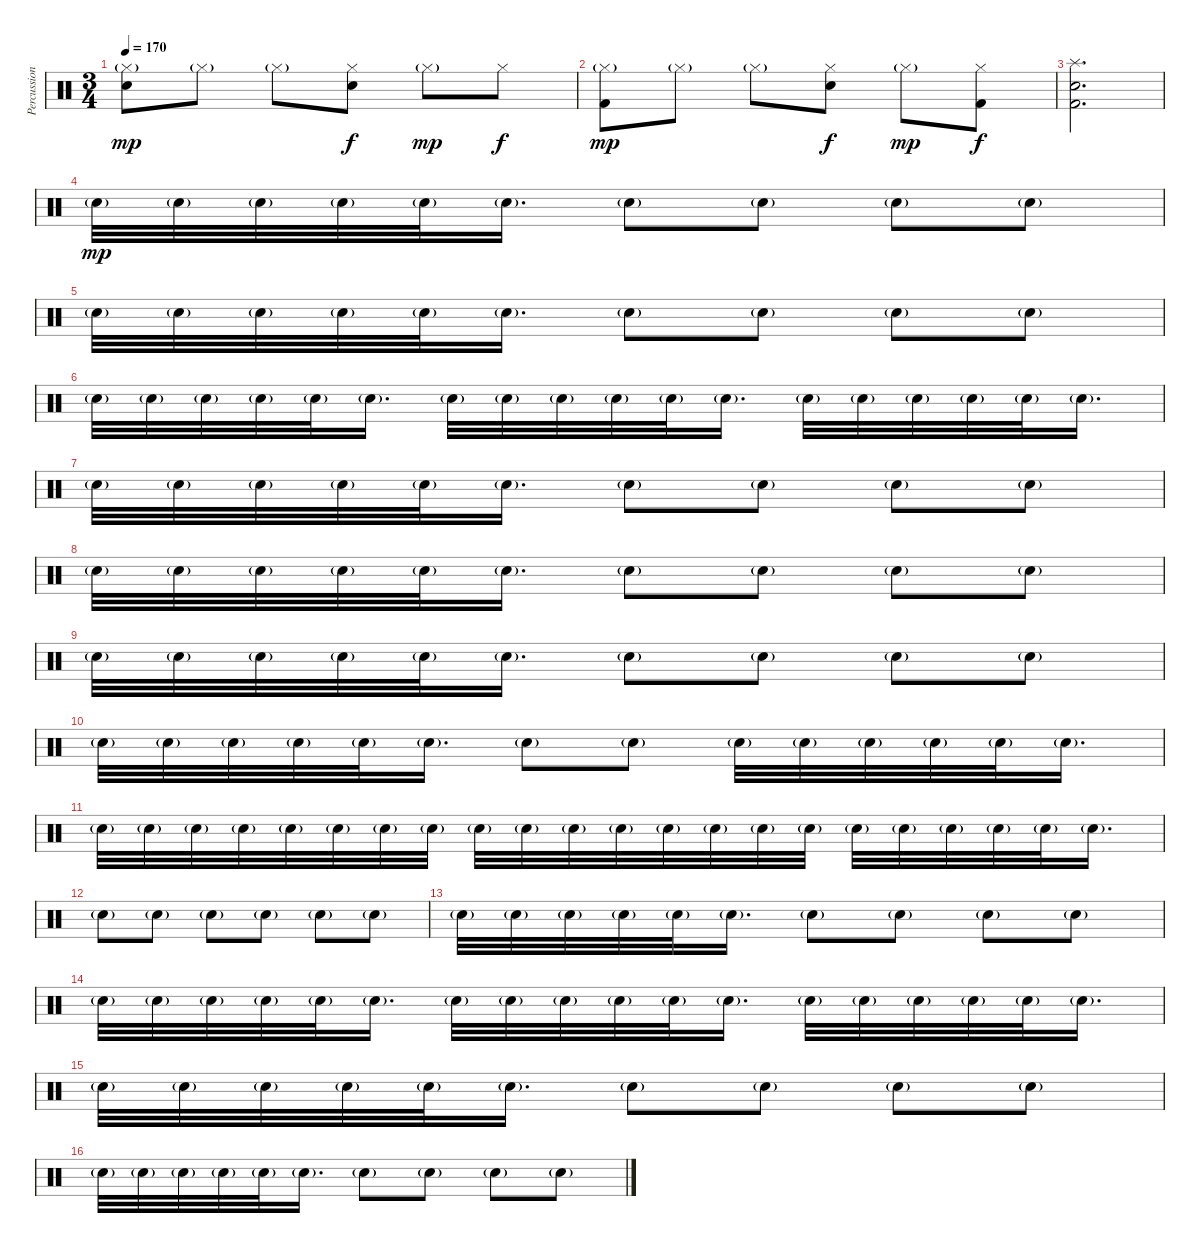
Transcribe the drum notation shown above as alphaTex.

\track ("Percussion" "Percussion") {instrument percussion}
\staff {score}
\articulation defaults
\ts (3 4)
\tempo 170
\clef neutral
\ks c
("Hi-Hat (closed)"{g} "Electric Snare (hit)").8{dy mp} "Hi-Hat (closed)"{g}.8 "Hi-Hat (closed)"{g}.8 ("Hi-Hat (closed)" "Electric Snare (hit)").8{dy f} "Hi-Hat (closed)"{g}.8{dy mp} "Hi-Hat (closed)".8{dy f} |
("Hi-Hat (closed)"{g} "Kick (hit) 2").8{dy mp} "Hi-Hat (closed)"{g}.8 "Hi-Hat (closed)"{g}.8 ("Hi-Hat (closed)" "Electric Snare (hit)").8{dy f} "Hi-Hat (closed)"{g}.8{dy mp} ("Hi-Hat (closed)" "Kick (hit) 2").8{dy f} |
("Splash (hit)" "Electric Snare (hit)" "Kick (hit) 2").2{d} |
"Electric Snare (hit)"{g}.32{dy mp} "Electric Snare (hit)"{g}.32 "Electric Snare (hit)"{g}.32 "Electric Snare (hit)"{g}.32 "Electric Snare (hit)"{g}.32 "Electric Snare (hit)"{g}.16{d} "Electric Snare (hit)"{g}.8 "Electric Snare (hit)"{g}.8 "Electric Snare (hit)"{g}.8 "Electric Snare (hit)"{g}.8 |
"Electric Snare (hit)"{g}.32 "Electric Snare (hit)"{g}.32 "Electric Snare (hit)"{g}.32 "Electric Snare (hit)"{g}.32 "Electric Snare (hit)"{g}.32 "Electric Snare (hit)"{g}.16{d} "Electric Snare (hit)"{g}.8 "Electric Snare (hit)"{g}.8 "Electric Snare (hit)"{g}.8 "Electric Snare (hit)"{g}.8 |
"Electric Snare (hit)"{g}.32 "Electric Snare (hit)"{g}.32 "Electric Snare (hit)"{g}.32 "Electric Snare (hit)"{g}.32 "Electric Snare (hit)"{g}.32 "Electric Snare (hit)"{g}.16{d} "Electric Snare (hit)"{g}.32 "Electric Snare (hit)"{g}.32 "Electric Snare (hit)"{g}.32 "Electric Snare (hit)"{g}.32 "Electric Snare (hit)"{g}.32 "Electric Snare (hit)"{g}.16{d} "Electric Snare (hit)"{g}.32 "Electric Snare (hit)"{g}.32 "Electric Snare (hit)"{g}.32 "Electric Snare (hit)"{g}.32 "Electric Snare (hit)"{g}.32 "Electric Snare (hit)"{g}.16{d} |
"Electric Snare (hit)"{g}.32 "Electric Snare (hit)"{g}.32 "Electric Snare (hit)"{g}.32 "Electric Snare (hit)"{g}.32 "Electric Snare (hit)"{g}.32 "Electric Snare (hit)"{g}.16{d} "Electric Snare (hit)"{g}.8 "Electric Snare (hit)"{g}.8 "Electric Snare (hit)"{g}.8 "Electric Snare (hit)"{g}.8 |
"Electric Snare (hit)"{g}.32 "Electric Snare (hit)"{g}.32 "Electric Snare (hit)"{g}.32 "Electric Snare (hit)"{g}.32 "Electric Snare (hit)"{g}.32 "Electric Snare (hit)"{g}.16{d} "Electric Snare (hit)"{g}.8 "Electric Snare (hit)"{g}.8 "Electric Snare (hit)"{g}.8 "Electric Snare (hit)"{g}.8 |
"Electric Snare (hit)"{g}.32 "Electric Snare (hit)"{g}.32 "Electric Snare (hit)"{g}.32 "Electric Snare (hit)"{g}.32 "Electric Snare (hit)"{g}.32 "Electric Snare (hit)"{g}.16{d} "Electric Snare (hit)"{g}.8 "Electric Snare (hit)"{g}.8 "Electric Snare (hit)"{g}.8 "Electric Snare (hit)"{g}.8 |
"Electric Snare (hit)"{g}.32 "Electric Snare (hit)"{g}.32 "Electric Snare (hit)"{g}.32 "Electric Snare (hit)"{g}.32 "Electric Snare (hit)"{g}.32 "Electric Snare (hit)"{g}.16{d} "Electric Snare (hit)"{g}.8 "Electric Snare (hit)"{g}.8 "Electric Snare (hit)"{g}.32 "Electric Snare (hit)"{g}.32 "Electric Snare (hit)"{g}.32 "Electric Snare (hit)"{g}.32 "Electric Snare (hit)"{g}.32 "Electric Snare (hit)"{g}.16{d} |
"Electric Snare (hit)"{g}.32 "Electric Snare (hit)"{g}.32 "Electric Snare (hit)"{g}.32 "Electric Snare (hit)"{g}.32 "Electric Snare (hit)"{g}.32 "Electric Snare (hit)"{g}.32 "Electric Snare (hit)"{g}.32 "Electric Snare (hit)"{g}.32 "Electric Snare (hit)"{g}.32 "Electric Snare (hit)"{g}.32 "Electric Snare (hit)"{g}.32 "Electric Snare (hit)"{g}.32 "Electric Snare (hit)"{g}.32 "Electric Snare (hit)"{g}.32 "Electric Snare (hit)"{g}.32 "Electric Snare (hit)"{g}.32 "Electric Snare (hit)"{g}.32 "Electric Snare (hit)"{g}.32 "Electric Snare (hit)"{g}.32 "Electric Snare (hit)"{g}.32 "Electric Snare (hit)"{g}.32 "Electric Snare (hit)"{g}.16{d} |
"Electric Snare (hit)"{g}.8 "Electric Snare (hit)"{g}.8 "Electric Snare (hit)"{g}.8 "Electric Snare (hit)"{g}.8 "Electric Snare (hit)"{g}.8 "Electric Snare (hit)"{g}.8 |
"Electric Snare (hit)"{g}.32 "Electric Snare (hit)"{g}.32 "Electric Snare (hit)"{g}.32 "Electric Snare (hit)"{g}.32 "Electric Snare (hit)"{g}.32 "Electric Snare (hit)"{g}.16{d} "Electric Snare (hit)"{g}.8 "Electric Snare (hit)"{g}.8 "Electric Snare (hit)"{g}.8 "Electric Snare (hit)"{g}.8 |
"Electric Snare (hit)"{g}.32 "Electric Snare (hit)"{g}.32 "Electric Snare (hit)"{g}.32 "Electric Snare (hit)"{g}.32 "Electric Snare (hit)"{g}.32 "Electric Snare (hit)"{g}.16{d} "Electric Snare (hit)"{g}.32 "Electric Snare (hit)"{g}.32 "Electric Snare (hit)"{g}.32 "Electric Snare (hit)"{g}.32 "Electric Snare (hit)"{g}.32 "Electric Snare (hit)"{g}.16{d} "Electric Snare (hit)"{g}.32 "Electric Snare (hit)"{g}.32 "Electric Snare (hit)"{g}.32 "Electric Snare (hit)"{g}.32 "Electric Snare (hit)"{g}.32 "Electric Snare (hit)"{g}.16{d} |
"Electric Snare (hit)"{g}.32 "Electric Snare (hit)"{g}.32 "Electric Snare (hit)"{g}.32 "Electric Snare (hit)"{g}.32 "Electric Snare (hit)"{g}.32 "Electric Snare (hit)"{g}.16{d} "Electric Snare (hit)"{g}.8 "Electric Snare (hit)"{g}.8 "Electric Snare (hit)"{g}.8 "Electric Snare (hit)"{g}.8 |
"Electric Snare (hit)"{g}.32 "Electric Snare (hit)"{g}.32 "Electric Snare (hit)"{g}.32 "Electric Snare (hit)"{g}.32 "Electric Snare (hit)"{g}.32 "Electric Snare (hit)"{g}.16{d} "Electric Snare (hit)"{g}.8 "Electric Snare (hit)"{g}.8 "Electric Snare (hit)"{g}.8 "Electric Snare (hit)"{g}.8
